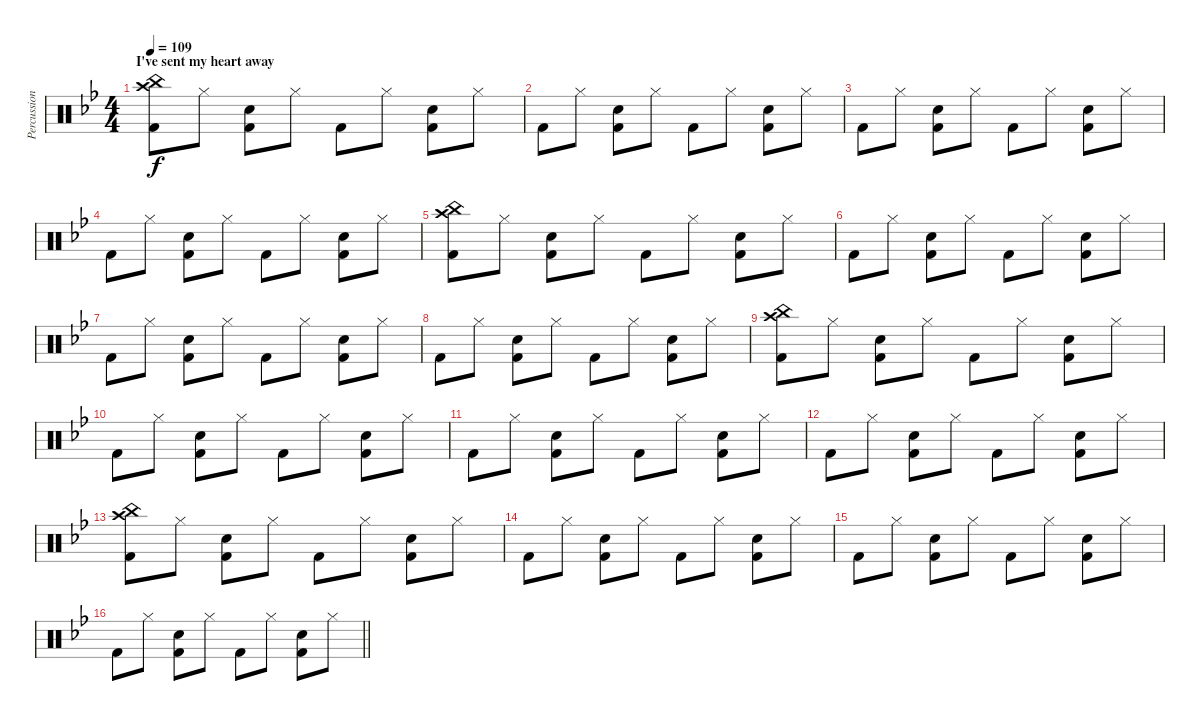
\track ("Percussions" "Percussion") {instrument percussion}
\staff {score}
\articulation defaults
\ts (4 4)
\section ("" "I've sent my heart away")
\tempo 109
\clef neutral
\ks bb
("China (hit)" "Crash high (hit)" "Kick (hit) 2").8{dy f} "Hi-Hat (closed)".8 ("Snare (hit) 2" "Kick (hit) 2").8 "Hi-Hat (closed)".8 "Kick (hit) 2".8 "Hi-Hat (closed)".8 ("Snare (hit) 2" "Kick (hit) 2").8 "Hi-Hat (closed)".8 |
"Kick (hit) 2".8 "Hi-Hat (closed)".8 ("Snare (hit) 2" "Kick (hit) 2").8 "Hi-Hat (closed)".8 "Kick (hit) 2".8 "Hi-Hat (closed)".8 ("Snare (hit) 2" "Kick (hit) 2").8 "Hi-Hat (closed)".8 |
"Kick (hit) 2".8 "Hi-Hat (closed)".8 ("Snare (hit) 2" "Kick (hit) 2").8 "Hi-Hat (closed)".8 "Kick (hit) 2".8 "Hi-Hat (closed)".8 ("Snare (hit) 2" "Kick (hit) 2").8 "Hi-Hat (closed)".8 |
"Kick (hit) 2".8 "Hi-Hat (closed)".8 ("Snare (hit) 2" "Kick (hit) 2").8 "Hi-Hat (closed)".8 "Kick (hit) 2".8 "Hi-Hat (closed)".8 ("Snare (hit) 2" "Kick (hit) 2").8 "Hi-Hat (closed)".8 |
("China (hit)" "Crash high (hit)" "Kick (hit) 2").8 "Hi-Hat (closed)".8 ("Snare (hit) 2" "Kick (hit) 2").8 "Hi-Hat (closed)".8 "Kick (hit) 2".8 "Hi-Hat (closed)".8 ("Snare (hit) 2" "Kick (hit) 2").8 "Hi-Hat (closed)".8 |
"Kick (hit) 2".8 "Hi-Hat (closed)".8 ("Snare (hit) 2" "Kick (hit) 2").8 "Hi-Hat (closed)".8 "Kick (hit) 2".8 "Hi-Hat (closed)".8 ("Snare (hit) 2" "Kick (hit) 2").8 "Hi-Hat (closed)".8 |
"Kick (hit) 2".8 "Hi-Hat (closed)".8 ("Snare (hit) 2" "Kick (hit) 2").8 "Hi-Hat (closed)".8 "Kick (hit) 2".8 "Hi-Hat (closed)".8 ("Snare (hit) 2" "Kick (hit) 2").8 "Hi-Hat (closed)".8 |
"Kick (hit) 2".8 "Hi-Hat (closed)".8 ("Snare (hit) 2" "Kick (hit) 2").8 "Hi-Hat (closed)".8 "Kick (hit) 2".8 "Hi-Hat (closed)".8 ("Snare (hit) 2" "Kick (hit) 2").8 "Hi-Hat (closed)".8 |
("China (hit)" "Crash high (hit)" "Kick (hit) 2").8 "Hi-Hat (closed)".8 ("Snare (hit) 2" "Kick (hit) 2").8 "Hi-Hat (closed)".8 "Kick (hit) 2".8 "Hi-Hat (closed)".8 ("Snare (hit) 2" "Kick (hit) 2").8 "Hi-Hat (closed)".8 |
"Kick (hit) 2".8 "Hi-Hat (closed)".8 ("Snare (hit) 2" "Kick (hit) 2").8 "Hi-Hat (closed)".8 "Kick (hit) 2".8 "Hi-Hat (closed)".8 ("Snare (hit) 2" "Kick (hit) 2").8 "Hi-Hat (closed)".8 |
"Kick (hit) 2".8 "Hi-Hat (closed)".8 ("Snare (hit) 2" "Kick (hit) 2").8 "Hi-Hat (closed)".8 "Kick (hit) 2".8 "Hi-Hat (closed)".8 ("Snare (hit) 2" "Kick (hit) 2").8 "Hi-Hat (closed)".8 |
"Kick (hit) 2".8 "Hi-Hat (closed)".8 ("Snare (hit) 2" "Kick (hit) 2").8 "Hi-Hat (closed)".8 "Kick (hit) 2".8 "Hi-Hat (closed)".8 ("Snare (hit) 2" "Kick (hit) 2").8 "Hi-Hat (closed)".8 |
("China (hit)" "Crash high (hit)" "Kick (hit) 2").8 "Hi-Hat (closed)".8 ("Snare (hit) 2" "Kick (hit) 2").8 "Hi-Hat (closed)".8 "Kick (hit) 2".8 "Hi-Hat (closed)".8 ("Snare (hit) 2" "Kick (hit) 2").8 "Hi-Hat (closed)".8 |
"Kick (hit) 2".8 "Hi-Hat (closed)".8 ("Snare (hit) 2" "Kick (hit) 2").8 "Hi-Hat (closed)".8 "Kick (hit) 2".8 "Hi-Hat (closed)".8 ("Snare (hit) 2" "Kick (hit) 2").8 "Hi-Hat (closed)".8 |
"Kick (hit) 2".8 "Hi-Hat (closed)".8 ("Snare (hit) 2" "Kick (hit) 2").8 "Hi-Hat (closed)".8 "Kick (hit) 2".8 "Hi-Hat (closed)".8 ("Snare (hit) 2" "Kick (hit) 2").8 "Hi-Hat (closed)".8 |
\barLineRight lightlight "Kick (hit) 2".8 "Hi-Hat (closed)".8
("Snare (hit) 2" "Kick (hit) 2").8 "Hi-Hat (closed)".8 "Kick (hit) 2".8 "Hi-Hat (closed)".8 ("Snare (hit) 2" "Kick (hit) 2").8 "Hi-Hat (closed)".8
